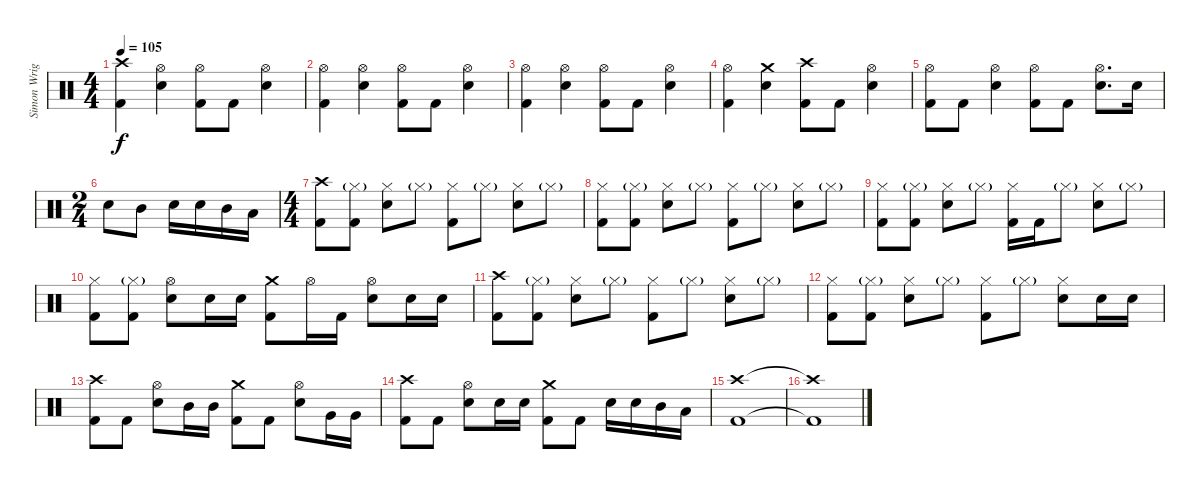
\track ("Simon Wright" "Simon Wrig") {instrument percussion}
\staff {score}
\articulation defaults
\ts (4 4)
\tempo 105
\clef neutral
\ks c
("Crash high (hit)" "Kick (hit) 2").4{dy f} ("Hi-Hat (open)" "Snare (hit) 2").4 ("Hi-Hat (open)" "Kick (hit) 2").8 "Kick (hit) 2".8 ("Hi-Hat (open)" "Snare (hit) 2").4 |
("Hi-Hat (open)" "Kick (hit) 2").4 ("Hi-Hat (open)" "Snare (hit) 2").4 ("Hi-Hat (open)" "Kick (hit) 2").8 "Kick (hit) 2".8 ("Hi-Hat (open)" "Snare (hit) 2").4 |
("Hi-Hat (open)" "Kick (hit) 2").4 ("Hi-Hat (open)" "Snare (hit) 2").4 ("Hi-Hat (open)" "Kick (hit) 2").8 "Kick (hit) 2".8 ("Hi-Hat (open)" "Snare (hit) 2").4 |
("Hi-Hat (open)" "Kick (hit) 2").4 ("Crash medium (hit)" "Snare (hit) 2").4 ("Crash high (hit)" "Kick (hit) 2").8 "Kick (hit) 2".8 ("Hi-Hat (open)" "Snare (hit) 2").4 |
("Hi-Hat (open)" "Kick (hit) 2").8 "Kick (hit) 2".8 ("Hi-Hat (open)" "Snare (hit) 2").4 ("Hi-Hat (open)" "Kick (hit) 2").8 "Kick (hit) 2".8 ("Hi-Hat (open)" "Snare (hit) 2").8{d} "Snare (hit) 2".16 |
\ts (2 4)
"Snare (hit) 2".8 "Mid Tom (hit)".8 "Snare (hit) 2".16 "Snare (hit) 2".16 "Mid Tom (hit)".16 "Low Tom (hit)".16 |
\ts (4 4)
("Crash high (hit)" "Kick (hit) 2").8 ("Hi-Hat (closed)"{g} "Kick (hit) 2").8 ("Hi-Hat (closed)" "Snare (hit) 2").8 "Hi-Hat (closed)"{g}.8 ("Hi-Hat (closed)" "Kick (hit) 2").8 "Hi-Hat (closed)"{g}.8 ("Hi-Hat (closed)" "Snare (hit) 2").8 "Hi-Hat (closed)"{g}.8 |
("Hi-Hat (closed)" "Kick (hit) 2").8 ("Hi-Hat (closed)"{g} "Kick (hit) 2").8 ("Hi-Hat (closed)" "Snare (hit) 2").8 "Hi-Hat (closed)"{g}.8 ("Hi-Hat (closed)" "Kick (hit) 2").8 "Hi-Hat (closed)"{g}.8 ("Hi-Hat (closed)" "Snare (hit) 2").8 "Hi-Hat (closed)"{g}.8 |
("Hi-Hat (closed)" "Kick (hit) 2").8 ("Hi-Hat (closed)"{g} "Kick (hit) 2").8 ("Hi-Hat (closed)" "Snare (hit) 2").8 "Hi-Hat (closed)"{g}.8 ("Hi-Hat (closed)" "Kick (hit) 2").16 "Kick (hit) 2".16 "Hi-Hat (closed)"{g}.8 ("Hi-Hat (closed)" "Snare (hit) 2").8 "Hi-Hat (closed)"{g}.8 |
("Hi-Hat (closed)" "Kick (hit) 2").8 ("Hi-Hat (closed)"{g} "Kick (hit) 2").8 ("Hi-Hat (open)" "Snare (hit) 2").8 "Snare (hit) 2".16 "Snare (hit) 2".16 ("Crash medium (hit)" "Kick (hit) 2").8 "Hi-Hat (open)".16 "Kick (hit) 2".16 ("Hi-Hat (open)" "Snare (hit) 2").8 "Snare (hit) 2".16 "Snare (hit) 2".16 |
("Crash high (hit)" "Kick (hit) 2").8 ("Hi-Hat (closed)"{g} "Kick (hit) 2").8 ("Hi-Hat (closed)" "Snare (hit) 2").8 "Hi-Hat (closed)"{g}.8 ("Hi-Hat (closed)" "Kick (hit) 2").8 "Hi-Hat (closed)"{g}.8 ("Hi-Hat (closed)" "Snare (hit) 2").8 "Hi-Hat (closed)"{g}.8 |
("Hi-Hat (closed)" "Kick (hit) 2").8 ("Hi-Hat (closed)"{g} "Kick (hit) 2").8 ("Hi-Hat (closed)" "Snare (hit) 2").8 "Hi-Hat (closed)"{g}.8 ("Hi-Hat (closed)" "Kick (hit) 2").8 "Hi-Hat (closed)"{g}.8 ("Hi-Hat (closed)" "Snare (hit) 2").8 "Snare (hit) 2".16 "Snare (hit) 2".16 |
("Crash high (hit)" "Kick (hit) 2").8 "Kick (hit) 2".8 ("Hi-Hat (open)" "Snare (hit) 2").8 "Mid Tom (hit)".16 "Mid Tom (hit)".16 ("Crash medium (hit)" "Kick (hit) 2").8 "Kick (hit) 2".8 ("Hi-Hat (open)" "Snare (hit) 2").8 "Very Low Tom (hit)".16 "Very Low Tom (hit)".16 |
("Crash high (hit)" "Kick (hit) 2").8 "Kick (hit) 2".8 ("Hi-Hat (open)" "Snare (hit) 2").8 "Snare (hit) 2".16 "Snare (hit) 2".16 ("Crash medium (hit)" "Kick (hit) 2").8 "Kick (hit) 2".8 "Snare (hit) 2".16 "Snare (hit) 2".16 "Mid Tom (hit)".16 "Low Tom (hit)".16 |
("Crash high (hit)" "Kick (hit) 2").1 |
("Crash high (hit)"{t} "Kick (hit) 2"{t}).1
